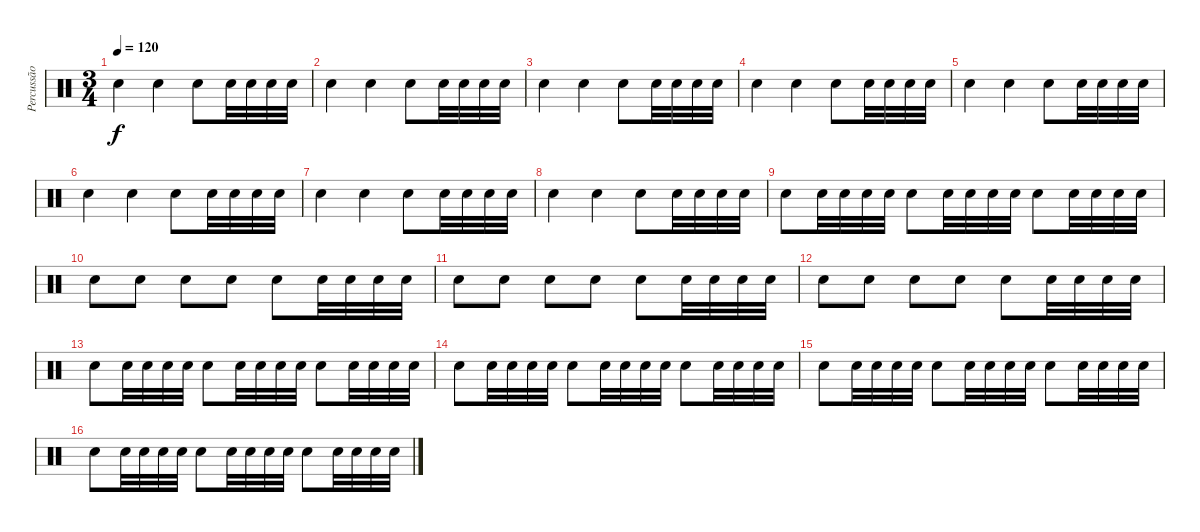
\track ("Percussão" "Percussão") {instrument percussion}
\staff {score}
\articulation defaults
\ts (3 4)
\tempo 120
\clef neutral
\ks c "Electric Snare (hit)".4{dy f} "Electric Snare (hit)".4 "Electric Snare (hit)".8 "Electric Snare (hit)".32 "Electric Snare (hit)".32 "Electric Snare (hit)".32 "Electric Snare (hit)".32
|
"Electric Snare (hit)".4 "Electric Snare (hit)".4 "Electric Snare (hit)".8 "Electric Snare (hit)".32 "Electric Snare (hit)".32 "Electric Snare (hit)".32 "Electric Snare (hit)".32 |
"Electric Snare (hit)".4 "Electric Snare (hit)".4 "Electric Snare (hit)".8 "Electric Snare (hit)".32 "Electric Snare (hit)".32 "Electric Snare (hit)".32 "Electric Snare (hit)".32 |
"Electric Snare (hit)".4 "Electric Snare (hit)".4 "Electric Snare (hit)".8 "Electric Snare (hit)".32 "Electric Snare (hit)".32 "Electric Snare (hit)".32 "Electric Snare (hit)".32 |
"Electric Snare (hit)".4 "Electric Snare (hit)".4 "Electric Snare (hit)".8 "Electric Snare (hit)".32 "Electric Snare (hit)".32 "Electric Snare (hit)".32 "Electric Snare (hit)".32 |
"Electric Snare (hit)".4 "Electric Snare (hit)".4 "Electric Snare (hit)".8 "Electric Snare (hit)".32 "Electric Snare (hit)".32 "Electric Snare (hit)".32 "Electric Snare (hit)".32 |
"Electric Snare (hit)".4 "Electric Snare (hit)".4 "Electric Snare (hit)".8 "Electric Snare (hit)".32 "Electric Snare (hit)".32 "Electric Snare (hit)".32 "Electric Snare (hit)".32 |
"Electric Snare (hit)".4 "Electric Snare (hit)".4 "Electric Snare (hit)".8 "Electric Snare (hit)".32 "Electric Snare (hit)".32 "Electric Snare (hit)".32 "Electric Snare (hit)".32 |
"Electric Snare (hit)".8 "Electric Snare (hit)".32 "Electric Snare (hit)".32 "Electric Snare (hit)".32 "Electric Snare (hit)".32 "Electric Snare (hit)".8 "Electric Snare (hit)".32 "Electric Snare (hit)".32 "Electric Snare (hit)".32 "Electric Snare (hit)".32 "Electric Snare (hit)".8 "Electric Snare (hit)".32 "Electric Snare (hit)".32 "Electric Snare (hit)".32 "Electric Snare (hit)".32 |
"Electric Snare (hit)".8 "Electric Snare (hit)".8 "Electric Snare (hit)".8 "Electric Snare (hit)".8 "Electric Snare (hit)".8 "Electric Snare (hit)".32 "Electric Snare (hit)".32 "Electric Snare (hit)".32 "Electric Snare (hit)".32 |
"Electric Snare (hit)".8 "Electric Snare (hit)".8 "Electric Snare (hit)".8 "Electric Snare (hit)".8 "Electric Snare (hit)".8 "Electric Snare (hit)".32 "Electric Snare (hit)".32 "Electric Snare (hit)".32 "Electric Snare (hit)".32 |
"Electric Snare (hit)".8 "Electric Snare (hit)".8 "Electric Snare (hit)".8 "Electric Snare (hit)".8 "Electric Snare (hit)".8 "Electric Snare (hit)".32 "Electric Snare (hit)".32 "Electric Snare (hit)".32 "Electric Snare (hit)".32 |
"Electric Snare (hit)".8 "Electric Snare (hit)".32 "Electric Snare (hit)".32 "Electric Snare (hit)".32 "Electric Snare (hit)".32 "Electric Snare (hit)".8 "Electric Snare (hit)".32 "Electric Snare (hit)".32 "Electric Snare (hit)".32 "Electric Snare (hit)".32 "Electric Snare (hit)".8 "Electric Snare (hit)".32 "Electric Snare (hit)".32 "Electric Snare (hit)".32 "Electric Snare (hit)".32 |
"Electric Snare (hit)".8 "Electric Snare (hit)".32 "Electric Snare (hit)".32 "Electric Snare (hit)".32 "Electric Snare (hit)".32 "Electric Snare (hit)".8 "Electric Snare (hit)".32 "Electric Snare (hit)".32 "Electric Snare (hit)".32 "Electric Snare (hit)".32 "Electric Snare (hit)".8 "Electric Snare (hit)".32 "Electric Snare (hit)".32 "Electric Snare (hit)".32 "Electric Snare (hit)".32 |
"Electric Snare (hit)".8 "Electric Snare (hit)".32 "Electric Snare (hit)".32 "Electric Snare (hit)".32 "Electric Snare (hit)".32 "Electric Snare (hit)".8 "Electric Snare (hit)".32 "Electric Snare (hit)".32 "Electric Snare (hit)".32 "Electric Snare (hit)".32 "Electric Snare (hit)".8 "Electric Snare (hit)".32 "Electric Snare (hit)".32 "Electric Snare (hit)".32 "Electric Snare (hit)".32 |
"Electric Snare (hit)".8 "Electric Snare (hit)".32 "Electric Snare (hit)".32 "Electric Snare (hit)".32 "Electric Snare (hit)".32 "Electric Snare (hit)".8 "Electric Snare (hit)".32 "Electric Snare (hit)".32 "Electric Snare (hit)".32 "Electric Snare (hit)".32 "Electric Snare (hit)".8 "Electric Snare (hit)".32 "Electric Snare (hit)".32 "Electric Snare (hit)".32 "Electric Snare (hit)".32
